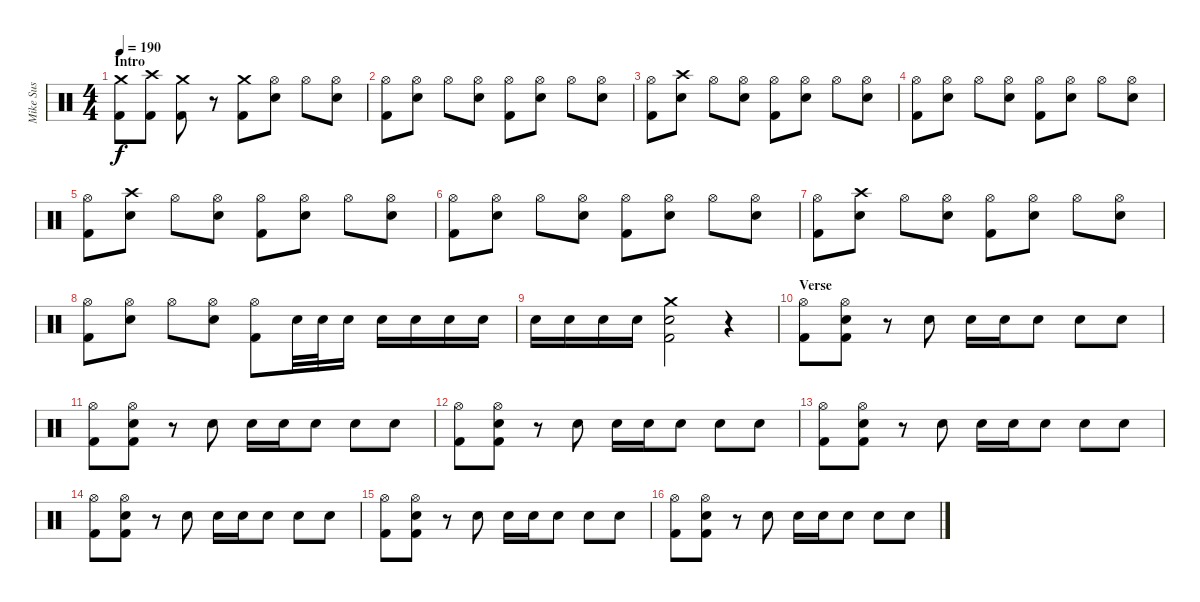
\track ("Mike Sus" "Mike Sus") {instrument percussion}
\staff {score}
\articulation defaults
\ts (4 4)
\section ("" "Intro")
\tempo 190
\clef neutral
\ks c
("Crash medium (hit)" "Kick (hit) 2").8{dy f} ("Crash high (hit)" "Kick (hit) 2").8 ("Crash medium (hit)" "Kick (hit) 2").8 r.8 ("Crash medium (hit)" "Kick (hit) 2").8 ("Hi-Hat (open)" "Electric Snare (hit)").8 "Hi-Hat (open)".8 ("Hi-Hat (open)" "Electric Snare (hit)").8 |
("Hi-Hat (open)" "Kick (hit) 2").8 ("Hi-Hat (open)" "Electric Snare (hit)").8 "Hi-Hat (open)".8 ("Hi-Hat (open)" "Electric Snare (hit)").8 ("Hi-Hat (open)" "Kick (hit) 2").8 ("Hi-Hat (open)" "Electric Snare (hit)").8 "Hi-Hat (open)".8 ("Hi-Hat (open)" "Electric Snare (hit)").8 |
("Hi-Hat (open)" "Kick (hit) 2").8 ("Crash high (hit)" "Electric Snare (hit)").8 "Hi-Hat (open)".8 ("Hi-Hat (open)" "Electric Snare (hit)").8 ("Hi-Hat (open)" "Kick (hit) 2").8 ("Hi-Hat (open)" "Electric Snare (hit)").8 "Hi-Hat (open)".8 ("Hi-Hat (open)" "Electric Snare (hit)").8 |
("Hi-Hat (open)" "Kick (hit) 2").8 ("Hi-Hat (open)" "Electric Snare (hit)").8 "Hi-Hat (open)".8 ("Hi-Hat (open)" "Electric Snare (hit)").8 ("Hi-Hat (open)" "Kick (hit) 2").8 ("Hi-Hat (open)" "Electric Snare (hit)").8 "Hi-Hat (open)".8 ("Hi-Hat (open)" "Electric Snare (hit)").8 |
("Hi-Hat (open)" "Kick (hit) 2").8 ("Crash high (hit)" "Electric Snare (hit)").8 "Hi-Hat (open)".8 ("Hi-Hat (open)" "Electric Snare (hit)").8 ("Hi-Hat (open)" "Kick (hit) 2").8 ("Hi-Hat (open)" "Electric Snare (hit)").8 "Hi-Hat (open)".8 ("Hi-Hat (open)" "Electric Snare (hit)").8 |
("Hi-Hat (open)" "Kick (hit) 2").8 ("Hi-Hat (open)" "Electric Snare (hit)").8 "Hi-Hat (open)".8 ("Hi-Hat (open)" "Electric Snare (hit)").8 ("Hi-Hat (open)" "Kick (hit) 2").8 ("Hi-Hat (open)" "Electric Snare (hit)").8 "Hi-Hat (open)".8 ("Hi-Hat (open)" "Electric Snare (hit)").8 |
("Hi-Hat (open)" "Kick (hit) 2").8 ("Crash high (hit)" "Electric Snare (hit)").8 "Hi-Hat (open)".8 ("Hi-Hat (open)" "Electric Snare (hit)").8 ("Hi-Hat (open)" "Kick (hit) 2").8 ("Hi-Hat (open)" "Electric Snare (hit)").8 "Hi-Hat (open)".8 ("Hi-Hat (open)" "Electric Snare (hit)").8 |
("Hi-Hat (open)" "Kick (hit) 2").8 ("Hi-Hat (open)" "Electric Snare (hit)").8 "Hi-Hat (open)".8 ("Hi-Hat (open)" "Electric Snare (hit)").8 ("Hi-Hat (open)" "Kick (hit) 2").8 "Electric Snare (hit)".32 "Electric Snare (hit)".32 "Electric Snare (hit)".16 "Electric Snare (hit)".16 "Electric Snare (hit)".16 "Electric Snare (hit)".16 "Electric Snare (hit)".16 |
"Electric Snare (hit)".16 "Electric Snare (hit)".16 "Electric Snare (hit)".16 "Electric Snare (hit)".16 ("Crash medium (hit)" "Electric Snare (hit)" "Kick (hit) 2").2 r.4 |
\section ("" "Verse")
("Hi-Hat (open)" "Kick (hit) 2").8 ("Hi-Hat (open)" "Electric Snare (hit)" "Kick (hit) 2").8 r.8 "Electric Snare (hit)".8 "Electric Snare (hit)".16 "Electric Snare (hit)".16 "Electric Snare (hit)".8 "Electric Snare (hit)".8 "Electric Snare (hit)".8 |
("Hi-Hat (open)" "Kick (hit) 2").8 ("Hi-Hat (open)" "Electric Snare (hit)" "Kick (hit) 2").8 r.8 "Electric Snare (hit)".8 "Electric Snare (hit)".16 "Electric Snare (hit)".16 "Electric Snare (hit)".8 "Electric Snare (hit)".8 "Electric Snare (hit)".8 |
("Hi-Hat (open)" "Kick (hit) 2").8 ("Hi-Hat (open)" "Electric Snare (hit)" "Kick (hit) 2").8 r.8 "Electric Snare (hit)".8 "Electric Snare (hit)".16 "Electric Snare (hit)".16 "Electric Snare (hit)".8 "Electric Snare (hit)".8 "Electric Snare (hit)".8 |
("Hi-Hat (open)" "Kick (hit) 2").8 ("Hi-Hat (open)" "Electric Snare (hit)" "Kick (hit) 2").8 r.8 "Electric Snare (hit)".8 "Electric Snare (hit)".16 "Electric Snare (hit)".16 "Electric Snare (hit)".8 "Electric Snare (hit)".8 "Electric Snare (hit)".8 |
("Hi-Hat (open)" "Kick (hit) 2").8 ("Hi-Hat (open)" "Electric Snare (hit)" "Kick (hit) 2").8 r.8 "Electric Snare (hit)".8 "Electric Snare (hit)".16 "Electric Snare (hit)".16 "Electric Snare (hit)".8 "Electric Snare (hit)".8 "Electric Snare (hit)".8 |
("Hi-Hat (open)" "Kick (hit) 2").8 ("Hi-Hat (open)" "Electric Snare (hit)" "Kick (hit) 2").8 r.8 "Electric Snare (hit)".8 "Electric Snare (hit)".16 "Electric Snare (hit)".16 "Electric Snare (hit)".8 "Electric Snare (hit)".8 "Electric Snare (hit)".8 |
("Hi-Hat (open)" "Kick (hit) 2").8 ("Hi-Hat (open)" "Electric Snare (hit)" "Kick (hit) 2").8 r.8 "Electric Snare (hit)".8 "Electric Snare (hit)".16 "Electric Snare (hit)".16 "Electric Snare (hit)".8 "Electric Snare (hit)".8 "Electric Snare (hit)".8
